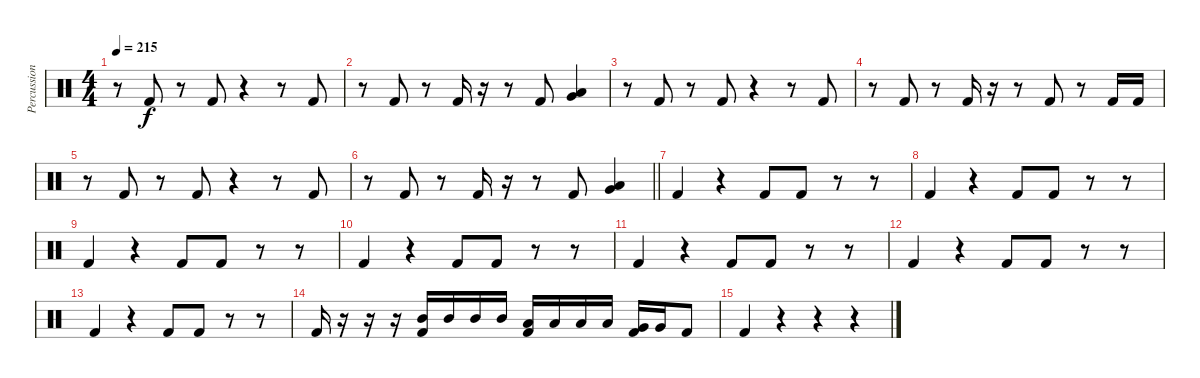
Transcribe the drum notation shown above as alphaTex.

\track ("Percussion" "Percussion") {instrument percussion}
\staff {score}
\articulation defaults
\ts (4 4)
\tempo 215
\clef neutral
\ks c
r.8{dy f} "Kick (hit) 2".8 r.8 "Kick (hit) 2".8 r.4 r.8 "Kick (hit) 2".8 |
r.8 "Kick (hit) 2".8 r.8 "Kick (hit) 2".16 r.16 r.8 "Kick (hit) 2".8 ("Very Low Tom (hit)" "Low Tom (hit)").4 |
r.8 "Kick (hit) 2".8 r.8 "Kick (hit) 2".8 r.4 r.8 "Kick (hit) 2".8 |
r.8 "Kick (hit) 2".8 r.8 "Kick (hit) 2".16 r.16 r.8 "Kick (hit) 2".8 r.8 "Kick (hit) 2".16 "Kick (hit) 2".16 |
r.8 "Kick (hit) 2".8 r.8 "Kick (hit) 2".8 r.4 r.8 "Kick (hit) 2".8 |
\barLineRight lightlight
r.8 "Kick (hit) 2".8 r.8 "Kick (hit) 2".16 r.16 r.8 "Kick (hit) 2".8 ("Very Low Tom (hit)" "Low Tom (hit)").4 |
"Kick (hit) 2".4 r.4 "Kick (hit) 2".8 "Kick (hit) 2".8 r.8 r.8 |
"Kick (hit) 2".4 r.4 "Kick (hit) 2".8 "Kick (hit) 2".8 r.8 r.8 |
"Kick (hit) 2".4 r.4 "Kick (hit) 2".8 "Kick (hit) 2".8 r.8 r.8 |
"Kick (hit) 2".4 r.4 "Kick (hit) 2".8 "Kick (hit) 2".8 r.8 r.8 |
"Kick (hit) 2".4 r.4 "Kick (hit) 2".8 "Kick (hit) 2".8 r.8 r.8 |
"Kick (hit) 2".4 r.4 "Kick (hit) 2".8 "Kick (hit) 2".8 r.8 r.8 |
"Kick (hit) 2".4 r.4 "Kick (hit) 2".8 "Kick (hit) 2".8 r.8 r.8 |
"Kick (hit) 2".16 r.16 r.16 r.16 ("Mid Tom (hit)" "Kick (hit) 2").16 "Mid Tom (hit)".16 "Mid Tom (hit)".16 "Mid Tom (hit)".16 ("Low Tom (hit)" "Kick (hit) 2").16 "Low Tom (hit)".16 "Low Tom (hit)".16 "Low Tom (hit)".16 ("Very Low Tom (hit)" "Kick (hit) 2").16 "Very Low Tom (hit)".16 "Kick (hit) 2".8 |
"Kick (hit) 2".4 r.4 r.4 r.4
